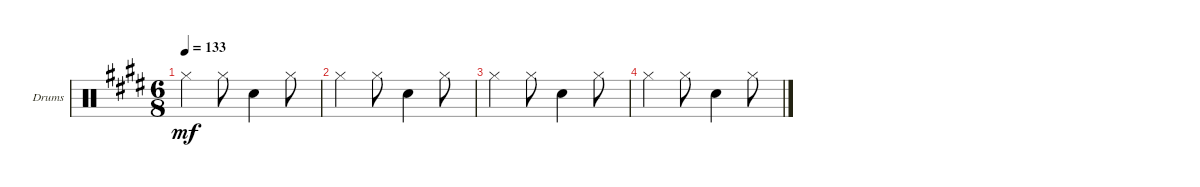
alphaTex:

\defaultSystemsLayout 4
\bracketExtendMode groupsimilarinstruments
\firstSystemTrackNameOrientation horizontal
\otherSystemsTrackNameOrientation horizontal
\track ("Drumkit" "Drums") {instrument percussion}
\staff {score}
\articulation defaults
\ts (6 8)
\tempo 133
\clef neutral
\scale
0.333333
\ks e "Hi-Hat (closed)".4{dy mf} "Hi-Hat (closed)".8 "Snare (hit) 2".4 "Hi-Hat (closed)".8
|
\scale
0.333333 "Hi-Hat (closed)".4 "Hi-Hat (closed)".8 "Snare (hit) 2".4 "Hi-Hat (closed)".8 |
"Hi-Hat (closed)".4 "Hi-Hat (closed)".8 "Snare (hit) 2".4 "Hi-Hat (closed)".8 |
"Hi-Hat (closed)".4 "Hi-Hat (closed)".8 "Snare (hit) 2".4 "Hi-Hat (closed)".8
